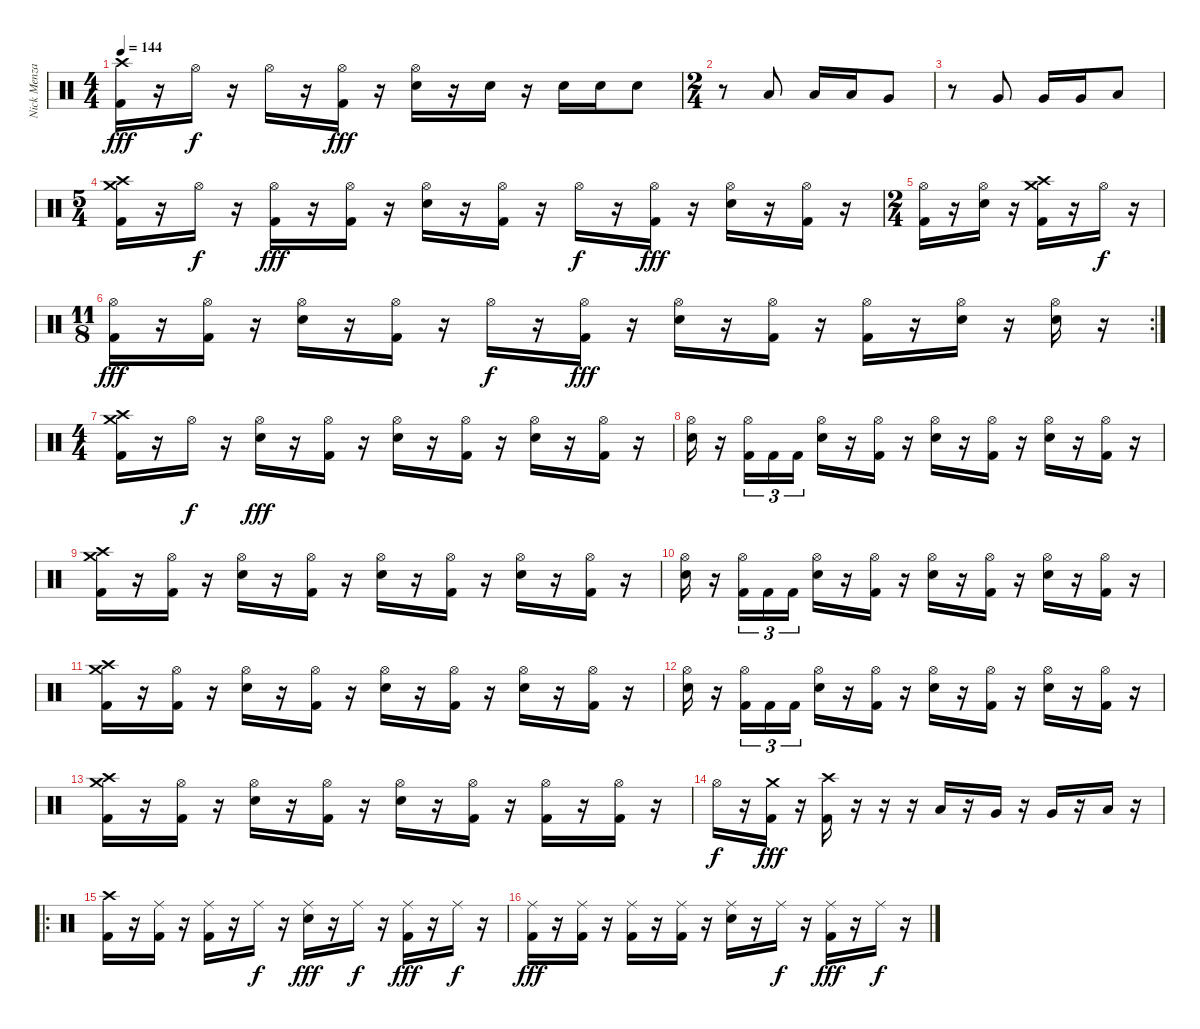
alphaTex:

\track ("Nick Menza" "Nick Menza") {instrument percussion}
\staff {score}
\articulation defaults
\ts (4 4)
\tempo 144
\clef neutral
\ks c
("Kick (hit) 2" "Crash high (hit)").16{dy fff} r.16 "Hi-Hat (open)".16{dy f} r.16 "Hi-Hat (open)".16 r.16 ("Kick (hit) 2" "Hi-Hat (open)").16{dy fff} r.16 ("Electric Snare (hit)" "Hi-Hat (open)").16 r.16 "Electric Snare (hit)".16 r.16 "Electric Snare (hit)".16 "Electric Snare (hit)".16 "Electric Snare (hit)".8 |
\ts (2 4)
r.8 "Low Tom (hit)".8 "Low Tom (hit)".16 "Low Tom (hit)".16 "Very Low Tom (hit)".8 |
r.8 "Very Low Tom (hit)".8 "Very Low Tom (hit)".16 "Very Low Tom (hit)".16 "Low Floor Tom (hit)".8 |
\ts (5 4)
("Kick (hit) 2" "Crash high (hit)" "Crash medium (hit)").16 r.16 "Hi-Hat (open)".16{dy f} r.16 ("Kick (hit) 2" "Hi-Hat (open)").16{dy fff} r.16 ("Kick (hit) 2" "Hi-Hat (open)").16 r.16 ("Electric Snare (hit)" "Hi-Hat (open)").16 r.16 ("Kick (hit) 2" "Hi-Hat (open)").16 r.16 "Hi-Hat (open)".16{dy f} r.16 ("Kick (hit) 2" "Hi-Hat (open)").16{dy fff} r.16 ("Electric Snare (hit)" "Hi-Hat (open)").16 r.16 ("Kick (hit) 2" "Hi-Hat (open)").16 r.16 |
\ts (2 4)
("Kick (hit) 2" "Hi-Hat (open)").16 r.16 ("Electric Snare (hit)" "Hi-Hat (open)").16 r.16 ("Kick (hit) 2" "Crash high (hit)" "Crash medium (hit)").16 r.16 "Hi-Hat (open)".16{dy f} r.16 |
\rc 2
\ts (11 8)
("Kick (hit) 2" "Hi-Hat (open)").16{dy fff} r.16 ("Kick (hit) 2" "Hi-Hat (open)").16 r.16 ("Electric Snare (hit)" "Hi-Hat (open)").16 r.16 ("Kick (hit) 2" "Hi-Hat (open)").16 r.16 "Hi-Hat (open)".16{dy f} r.16 ("Kick (hit) 2" "Hi-Hat (open)").16{dy fff} r.16 ("Electric Snare (hit)" "Hi-Hat (open)").16 r.16 ("Kick (hit) 2" "Hi-Hat (open)").16 r.16 ("Kick (hit) 2" "Hi-Hat (open)").16 r.16 ("Electric Snare (hit)" "Hi-Hat (open)").16 r.16 ("Electric Snare (hit)" "Hi-Hat (open)").16 r.16 |
\ts (4 4)
("Kick (hit) 2" "Crash high (hit)" "Crash medium (hit)").16 r.16 "Hi-Hat (open)".16{dy f} r.16 ("Electric Snare (hit)" "Hi-Hat (open)").16{dy fff} r.16 ("Kick (hit) 2" "Hi-Hat (open)").16 r.16 ("Electric Snare (hit)" "Hi-Hat (open)").16 r.16 ("Kick (hit) 2" "Hi-Hat (open)").16 r.16 ("Electric Snare (hit)" "Hi-Hat (open)").16 r.16 ("Kick (hit) 2" "Hi-Hat (open)").16 r.16 |
("Electric Snare (hit)" "Hi-Hat (open)").16 r.16 ("Kick (hit) 2" "Hi-Hat (open)").16{tu (3 2)} "Kick (hit) 2".16{tu (3 2)} "Kick (hit) 2".16{tu (3 2)} ("Electric Snare (hit)" "Hi-Hat (open)").16 r.16 ("Kick (hit) 2" "Hi-Hat (open)").16 r.16 ("Electric Snare (hit)" "Hi-Hat (open)").16 r.16 ("Kick (hit) 2" "Hi-Hat (open)").16 r.16 ("Electric Snare (hit)" "Hi-Hat (open)").16 r.16 ("Kick (hit) 2" "Hi-Hat (open)").16 r.16 |
("Kick (hit) 2" "Crash high (hit)" "Crash medium (hit)").16 r.16 ("Kick (hit) 2" "Hi-Hat (open)").16 r.16 ("Electric Snare (hit)" "Hi-Hat (open)").16 r.16 ("Kick (hit) 2" "Hi-Hat (open)").16 r.16 ("Electric Snare (hit)" "Hi-Hat (open)").16 r.16 ("Kick (hit) 2" "Hi-Hat (open)").16 r.16 ("Electric Snare (hit)" "Hi-Hat (open)").16 r.16 ("Kick (hit) 2" "Hi-Hat (open)").16 r.16 |
("Electric Snare (hit)" "Hi-Hat (open)").16 r.16 ("Kick (hit) 2" "Hi-Hat (open)").16{tu (3 2)} "Kick (hit) 2".16{tu (3 2)} "Kick (hit) 2".16{tu (3 2)} ("Electric Snare (hit)" "Hi-Hat (open)").16 r.16 ("Kick (hit) 2" "Hi-Hat (open)").16 r.16 ("Electric Snare (hit)" "Hi-Hat (open)").16 r.16 ("Kick (hit) 2" "Hi-Hat (open)").16 r.16 ("Electric Snare (hit)" "Hi-Hat (open)").16 r.16 ("Kick (hit) 2" "Hi-Hat (open)").16 r.16 |
("Kick (hit) 2" "Crash high (hit)" "Crash medium (hit)").16 r.16 ("Kick (hit) 2" "Hi-Hat (open)").16 r.16 ("Electric Snare (hit)" "Hi-Hat (open)").16 r.16 ("Kick (hit) 2" "Hi-Hat (open)").16 r.16 ("Electric Snare (hit)" "Hi-Hat (open)").16 r.16 ("Kick (hit) 2" "Hi-Hat (open)").16 r.16 ("Electric Snare (hit)" "Hi-Hat (open)").16 r.16 ("Kick (hit) 2" "Hi-Hat (open)").16 r.16 |
("Electric Snare (hit)" "Hi-Hat (open)").16 r.16 ("Kick (hit) 2" "Hi-Hat (open)").16{tu (3 2)} "Kick (hit) 2".16{tu (3 2)} "Kick (hit) 2".16{tu (3 2)} ("Electric Snare (hit)" "Hi-Hat (open)").16 r.16 ("Kick (hit) 2" "Hi-Hat (open)").16 r.16 ("Electric Snare (hit)" "Hi-Hat (open)").16 r.16 ("Kick (hit) 2" "Hi-Hat (open)").16 r.16 ("Electric Snare (hit)" "Hi-Hat (open)").16 r.16 ("Kick (hit) 2" "Hi-Hat (open)").16 r.16 |
("Kick (hit) 2" "Crash high (hit)" "Crash medium (hit)").16 r.16 ("Kick (hit) 2" "Hi-Hat (open)").16 r.16 ("Electric Snare (hit)" "Hi-Hat (open)").16 r.16 ("Kick (hit) 2" "Hi-Hat (open)").16 r.16 ("Electric Snare (hit)" "Hi-Hat (open)").16 r.16 ("Kick (hit) 2" "Hi-Hat (open)").16 r.16 ("Kick (hit) 2" "Hi-Hat (open)").16 r.16 ("Kick (hit) 2" "Hi-Hat (open)").16 r.16 |
"Hi-Hat (open)".16{dy f} r.16 ("Kick (hit) 2" "Crash medium (hit)").16{dy fff} r.16 ("Kick (hit) 2" "Crash high (hit)").16 r.16 r.16 r.16 "Low Tom (hit)".16 r.16 "Very Low Tom (hit)".16 r.16 "Very Low Tom (hit)".16 r.16 "Low Floor Tom (hit)".16 r.16 |
\ro
("Kick (hit) 2" "Crash high (hit)").16 r.16 ("Kick (hit) 2" "Ride (middle)").16 r.16 ("Kick (hit) 2" "Ride (middle)").16 r.16 "Ride (middle)".16{dy f} r.16 ("Electric Snare (hit)" "Ride (middle)").16{dy fff} r.16 "Ride (middle)".16{dy f} r.16 ("Kick (hit) 2" "Ride (middle)").16{dy fff} r.16 "Ride (middle)".16{dy f} r.16 |
("Kick (hit) 2" "Ride (middle)").16{dy fff} r.16 ("Kick (hit) 2" "Ride (middle)").16 r.16 ("Kick (hit) 2" "Ride (middle)").16 r.16 ("Kick (hit) 2" "Ride (middle)").16 r.16 ("Electric Snare (hit)" "Ride (middle)").16 r.16 "Ride (middle)".16{dy f} r.16 ("Kick (hit) 2" "Ride (middle)").16{dy fff} r.16 "Ride (middle)".16{dy f} r.16
